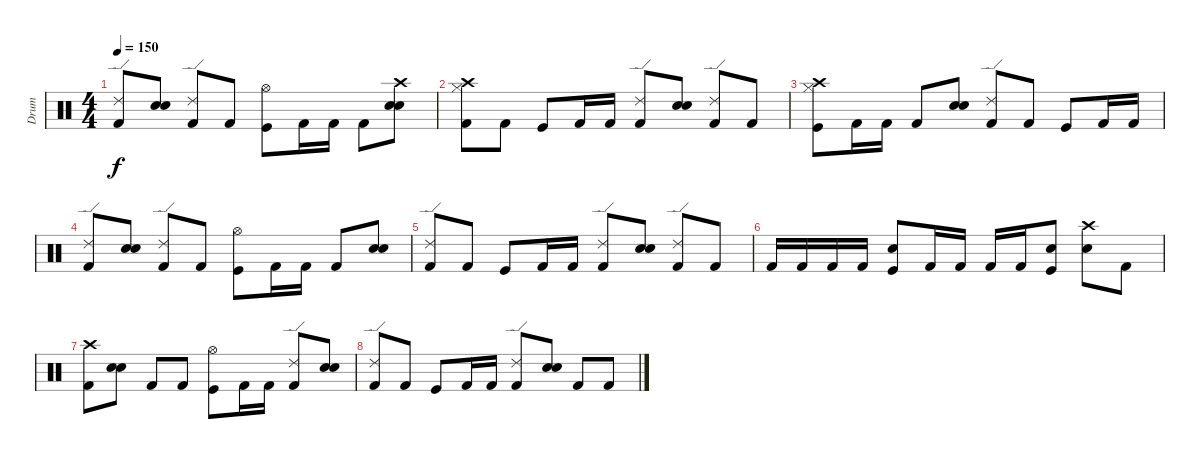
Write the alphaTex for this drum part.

\track ("Drum" "Drum") {instrument percussion}
\staff {score}
\articulation defaults
\ts (4 4)
\tempo 150
\clef neutral
\ks c
("Ride (edge) 2" "Kick (hit) 2").8{dy f} ("Snare (hit) 2" "Electric Snare (hit)").8 ("Ride (edge) 2" "Kick (hit) 2").8 "Kick (hit) 2".8 ("Hi-Hat (open)" "Kick (hit)").8 "Kick (hit) 2".16 "Kick (hit) 2".16 "Kick (hit) 2".8 ("Crash high (hit)" "Snare (hit) 2" "Electric Snare (hit)").8 |
("Hi-Hat (closed)" "Crash high (hit)" "Kick (hit) 2").8 "Kick (hit) 2".8 "Kick (hit)".8 "Kick (hit) 2".16 "Kick (hit) 2".16 ("Ride (edge) 2" "Kick (hit) 2").8 ("Snare (hit) 2" "Electric Snare (hit)").8 ("Ride (edge) 2" "Kick (hit) 2").8 "Kick (hit) 2".8 |
("Hi-Hat (closed)" "Crash high (hit)" "Kick (hit)").8 "Kick (hit) 2".16 "Kick (hit) 2".16 "Kick (hit) 2".8 ("Snare (hit) 2" "Electric Snare (hit)").8 ("Ride (edge) 2" "Kick (hit) 2").8 "Kick (hit) 2".8 "Kick (hit)".8 "Kick (hit) 2".16 "Kick (hit) 2".16 |
("Ride (edge) 2" "Kick (hit) 2").8 ("Snare (hit) 2" "Electric Snare (hit)").8 ("Ride (edge) 2" "Kick (hit) 2").8 "Kick (hit) 2".8 ("Hi-Hat (open)" "Kick (hit)").8 "Kick (hit) 2".16 "Kick (hit) 2".16 "Kick (hit) 2".8 ("Snare (hit) 2" "Electric Snare (hit)").8 |
("Ride (edge) 2" "Kick (hit) 2").8 "Kick (hit) 2".8 "Kick (hit)".8 "Kick (hit) 2".16 "Kick (hit) 2".16 ("Ride (edge) 2" "Kick (hit) 2").8 ("Snare (hit) 2" "Electric Snare (hit)").8 ("Ride (edge) 2" "Kick (hit) 2").8 "Kick (hit) 2".8 |
"Kick (hit) 2".16 "Kick (hit) 2".16 "Kick (hit) 2".16 "Kick (hit) 2".16 ("Electric Snare (hit)" "Kick (hit)").8 "Kick (hit) 2".16 "Kick (hit) 2".16 "Kick (hit) 2".16 "Kick (hit) 2".16 ("Electric Snare (hit)" "Kick (hit)").8 ("Crash high (hit)" "Electric Snare (hit)").8 "Kick (hit) 2".8 |
("Crash high (hit)" "Kick (hit) 2").8 ("Snare (hit) 2" "Electric Snare (hit)").8 "Kick (hit) 2".8 "Kick (hit) 2".8 ("Hi-Hat (open)" "Kick (hit)").8 "Kick (hit) 2".16 "Kick (hit) 2".16 ("Ride (edge) 2" "Kick (hit) 2").8 ("Snare (hit) 2" "Electric Snare (hit)").8 |
("Ride (edge) 2" "Kick (hit) 2").8 "Kick (hit) 2".8 "Kick (hit)".8 "Kick (hit) 2".16 "Kick (hit) 2".16 ("Ride (edge) 2" "Kick (hit) 2").8 ("Snare (hit) 2" "Electric Snare (hit)").8 "Kick (hit) 2".8 "Kick (hit) 2".8
